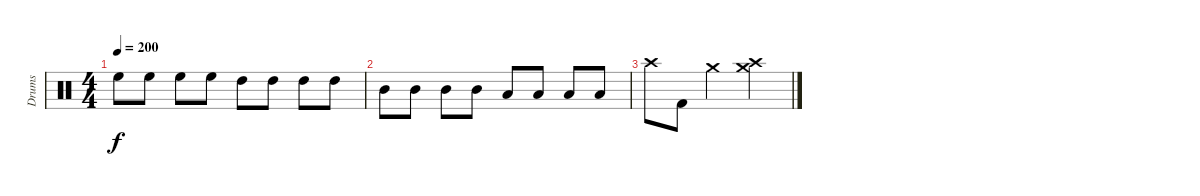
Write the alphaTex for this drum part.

\track ("Drums" "Drums") {instrument percussion}
\staff {score}
\articulation defaults
\ts (4 4)
\tempo 200
\clef neutral
\ks c "High Floor Tom (hit)".8{dy f} "High Floor Tom (hit)".8 "High Floor Tom (hit)".8 "High Floor Tom (hit)".8 "High Tom (hit)".8 "High Tom (hit)".8 "High Tom (hit)".8 "High Tom (hit)".8
|
"Mid Tom (hit)".8 "Mid Tom (hit)".8 "Mid Tom (hit)".8 "Mid Tom (hit)".8 "Low Tom (hit)".8 "Low Tom (hit)".8 "Low Tom (hit)".8 "Low Tom (hit)".8 |
"Crash high (hit)".8 "Kick (hit) 2".8 "Crash medium (hit)".2 ("Crash high (hit)" "Crash medium (hit)").4
